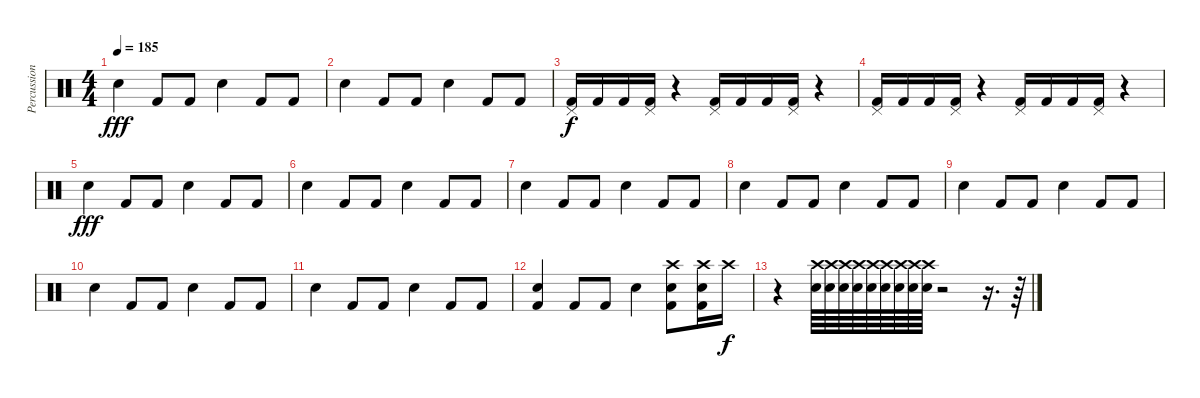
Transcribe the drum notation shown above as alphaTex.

\track ("Percussions" "Percussion") {instrument percussion}
\staff {score}
\articulation defaults
\ts (4 4)
\tempo 185
\clef neutral
\ks c "Electric Snare (hit)".4{dy fff} "Kick (hit) 2".8 "Kick (hit) 2".8 "Electric Snare (hit)".4 "Kick (hit) 2".8 "Kick (hit) 2".8
|
"Electric Snare (hit)".4 "Kick (hit) 2".8 "Kick (hit) 2".8 "Electric Snare (hit)".4 "Kick (hit) 2".8 "Kick (hit) 2".8 |
("Pedal Hi-Hat (hit)" "Kick (hit) 2").16{dy f} "Kick (hit) 2".16 "Kick (hit) 2".16 ("Pedal Hi-Hat (hit)" "Kick (hit) 2").16 r.4 ("Pedal Hi-Hat (hit)" "Kick (hit) 2").16 "Kick (hit) 2".16 "Kick (hit) 2".16 ("Pedal Hi-Hat (hit)" "Kick (hit) 2").16 r.4 |
("Pedal Hi-Hat (hit)" "Kick (hit) 2").16 "Kick (hit) 2".16 "Kick (hit) 2".16 ("Pedal Hi-Hat (hit)" "Kick (hit) 2").16 r.4 ("Pedal Hi-Hat (hit)" "Kick (hit) 2").16 "Kick (hit) 2".16 "Kick (hit) 2".16 ("Pedal Hi-Hat (hit)" "Kick (hit) 2").16 r.4 |
"Electric Snare (hit)".4{dy fff} "Kick (hit) 2".8 "Kick (hit) 2".8 "Electric Snare (hit)".4 "Kick (hit) 2".8 "Kick (hit) 2".8 |
"Electric Snare (hit)".4 "Kick (hit) 2".8 "Kick (hit) 2".8 "Electric Snare (hit)".4 "Kick (hit) 2".8 "Kick (hit) 2".8 |
"Electric Snare (hit)".4 "Kick (hit) 2".8 "Kick (hit) 2".8 "Electric Snare (hit)".4 "Kick (hit) 2".8 "Kick (hit) 2".8 |
"Electric Snare (hit)".4 "Kick (hit) 2".8 "Kick (hit) 2".8 "Electric Snare (hit)".4 "Kick (hit) 2".8 "Kick (hit) 2".8 |
"Electric Snare (hit)".4 "Kick (hit) 2".8 "Kick (hit) 2".8 "Electric Snare (hit)".4 "Kick (hit) 2".8 "Kick (hit) 2".8 |
"Electric Snare (hit)".4 "Kick (hit) 2".8 "Kick (hit) 2".8 "Electric Snare (hit)".4 "Kick (hit) 2".8 "Kick (hit) 2".8 |
"Electric Snare (hit)".4 "Kick (hit) 2".8 "Kick (hit) 2".8 "Electric Snare (hit)".4 "Kick (hit) 2".8 "Kick (hit) 2".8 |
("Electric Snare (hit)" "Kick (hit) 2").4 "Kick (hit) 2".8 "Kick (hit) 2".8 "Electric Snare (hit)".4 ("Crash high (hit)" "Electric Snare (hit)" "Kick (hit) 2").8 ("Crash high (hit)" "Electric Snare (hit)" "Kick (hit) 2").16 "Crash high (hit)".16{dy f} |
r.4 ("Crash high (hit)" "Hand Clap (hit)").64 ("Crash high (hit)" "Hand Clap (hit)").64 ("Crash high (hit)" "Hand Clap (hit)").64 ("Crash high (hit)" "Hand Clap (hit)").64 ("Crash high (hit)" "Hand Clap (hit)").64 ("Crash high (hit)" "Hand Clap (hit)").64 ("Crash high (hit)" "Hand Clap (hit)").64 ("Crash high (hit)" "Hand Clap (hit)").64 ("Crash high (hit)" "Hand Clap (hit)").64 r.2 r.16{d} r.64
